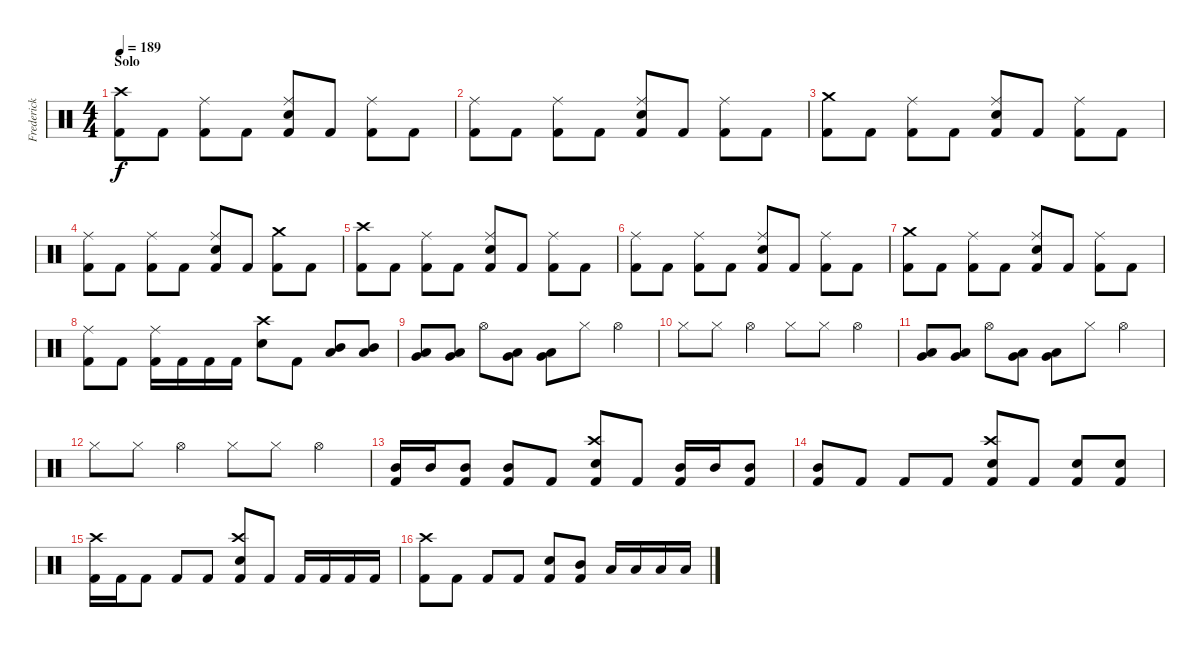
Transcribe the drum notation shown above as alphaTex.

\track ("Frederick Ehmke" "Frederick ") {instrument percussion}
\staff {score}
\articulation defaults
\ts (4 4)
\section ("" "Solo")
\tempo 189
\clef neutral
\ks c
("Kick (hit) 2" "Crash high (hit)").8{dy f} "Kick (hit) 2".8 ("Kick (hit) 2" "Ride (middle)").8 "Kick (hit) 2".8 ("Electric Snare (hit)" "Kick (hit) 2" "Ride (middle)").8 "Kick (hit) 2".8 ("Kick (hit) 2" "Ride (middle)").8 "Kick (hit) 2".8 |
("Kick (hit) 2" "Ride (middle)").8 "Kick (hit) 2".8 ("Kick (hit) 2" "Ride (middle)").8 "Kick (hit) 2".8 ("Electric Snare (hit)" "Kick (hit) 2" "Ride (middle)").8 "Kick (hit) 2".8 ("Kick (hit) 2" "Ride (middle)").8 "Kick (hit) 2".8 |
("Kick (hit) 2" "Crash medium (hit)").8 "Kick (hit) 2".8 ("Kick (hit) 2" "Ride (middle)").8 "Kick (hit) 2".8 ("Electric Snare (hit)" "Kick (hit) 2" "Ride (middle)").8 "Kick (hit) 2".8 ("Kick (hit) 2" "Ride (middle)").8 "Kick (hit) 2".8 |
("Kick (hit) 2" "Ride (middle)").8 "Kick (hit) 2".8 ("Kick (hit) 2" "Ride (middle)").8 "Kick (hit) 2".8 ("Electric Snare (hit)" "Kick (hit) 2" "Ride (middle)").8 "Kick (hit) 2".8 ("Kick (hit) 2" "Crash medium (hit)").8 "Kick (hit) 2".8 |
("Kick (hit) 2" "Crash high (hit)").8 "Kick (hit) 2".8 ("Kick (hit) 2" "Ride (middle)").8 "Kick (hit) 2".8 ("Electric Snare (hit)" "Kick (hit) 2" "Ride (middle)").8 "Kick (hit) 2".8 ("Kick (hit) 2" "Ride (middle)").8 "Kick (hit) 2".8 |
("Kick (hit) 2" "Ride (middle)").8 "Kick (hit) 2".8 ("Kick (hit) 2" "Ride (middle)").8 "Kick (hit) 2".8 ("Electric Snare (hit)" "Kick (hit) 2" "Ride (middle)").8 "Kick (hit) 2".8 ("Kick (hit) 2" "Ride (middle)").8 "Kick (hit) 2".8 |
("Kick (hit) 2" "Crash medium (hit)").8 "Kick (hit) 2".8 ("Kick (hit) 2" "Ride (middle)").8 "Kick (hit) 2".8 ("Electric Snare (hit)" "Kick (hit) 2" "Ride (middle)").8 "Kick (hit) 2".8 ("Kick (hit) 2" "Ride (middle)").8 "Kick (hit) 2".8 |
("Kick (hit) 2" "Ride (middle)").8 "Kick (hit) 2".8 ("Kick (hit) 2" "Ride (middle)").16 "Kick (hit) 2".16 "Kick (hit) 2".16 "Kick (hit) 2".16 ("Electric Snare (hit)" "Crash high (hit)").8 "Kick (hit) 2".8 ("Low Tom (hit)" "Mid Tom (hit)").8 ("Low Tom (hit)" "Mid Tom (hit)").8 |
("Low Tom (hit)" "Very Low Tom (hit)").8 ("Low Tom (hit)" "Very Low Tom (hit)").8 "Hi-Hat (open)".8 ("Low Tom (hit)" "Very Low Tom (hit)").8 ("Low Tom (hit)" "Very Low Tom (hit)").8 "Hi-Hat (closed)".8 "Hi-Hat (open)".4 |
"Hi-Hat (closed)".8 "Hi-Hat (closed)".8 "Hi-Hat (open)".4 "Hi-Hat (closed)".8 "Hi-Hat (closed)".8 "Hi-Hat (open)".4 |
("Low Tom (hit)" "Very Low Tom (hit)").8 ("Low Tom (hit)" "Very Low Tom (hit)").8 "Hi-Hat (open)".8 ("Low Tom (hit)" "Very Low Tom (hit)").8 ("Low Tom (hit)" "Very Low Tom (hit)").8 "Hi-Hat (closed)".8 "Hi-Hat (open)".4 |
"Hi-Hat (closed)".8 "Hi-Hat (closed)".8 "Hi-Hat (open)".4 "Hi-Hat (closed)".8 "Hi-Hat (closed)".8 "Hi-Hat (open)".4 |
("Kick (hit) 2" "Mid Tom (hit)").16 "Mid Tom (hit)".16 ("Kick (hit) 2" "Mid Tom (hit)").8 ("Kick (hit) 2" "Mid Tom (hit)").8 "Kick (hit) 2".8 ("Electric Snare (hit)" "Kick (hit) 2" "Crash high (hit)").8 "Kick (hit) 2".8 ("Kick (hit) 2" "Mid Tom (hit)").16 "Mid Tom (hit)".16 ("Kick (hit) 2" "Mid Tom (hit)").8 |
("Kick (hit) 2" "Mid Tom (hit)").8 "Kick (hit) 2".8 "Kick (hit) 2".8 "Kick (hit) 2".8 ("Electric Snare (hit)" "Kick (hit) 2" "Crash high (hit)").8 "Kick (hit) 2".8 ("Electric Snare (hit)" "Kick (hit) 2").8 ("Electric Snare (hit)" "Kick (hit) 2").8 |
("Kick (hit) 2" "Crash high (hit)").16 "Kick (hit) 2".16 "Kick (hit) 2".8 "Kick (hit) 2".8 "Kick (hit) 2".8 ("Electric Snare (hit)" "Kick (hit) 2" "Crash high (hit)").8 "Kick (hit) 2".8 "Kick (hit) 2".16 "Kick (hit) 2".16 "Kick (hit) 2".16 "Kick (hit) 2".16 |
("Kick (hit) 2" "Crash high (hit)").8 "Kick (hit) 2".8 "Kick (hit) 2".8 "Kick (hit) 2".8 ("Electric Snare (hit)" "Kick (hit) 2").8 ("Kick (hit) 2" "Mid Tom (hit)").8 "Low Tom (hit)".16 "Low Tom (hit)".16 "Low Tom (hit)".16 "Low Tom (hit)".16
